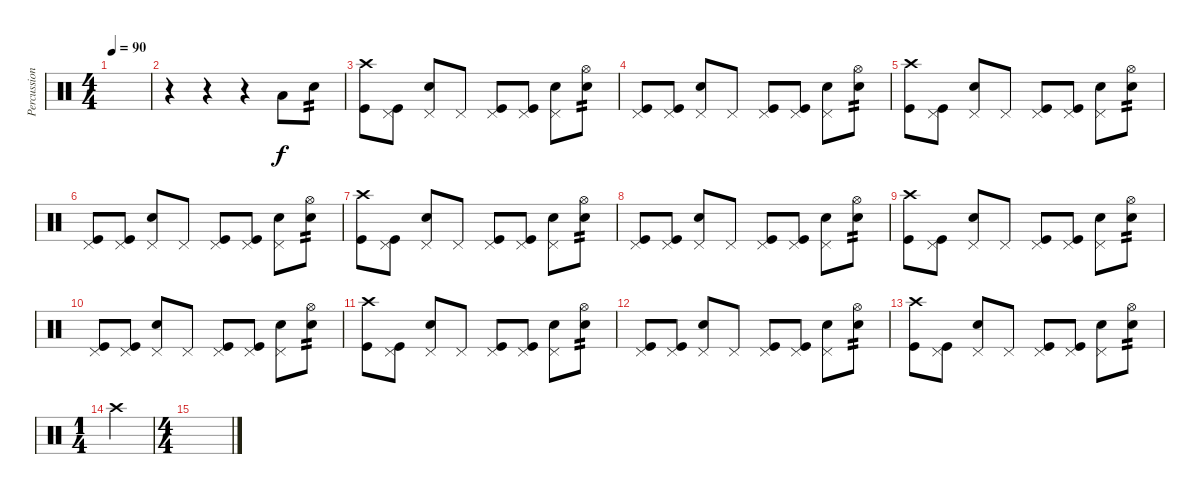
\track ("Percussions" "Percussion") {instrument percussion}
\staff {score}
\articulation defaults
\ts (4 4)
\tempo 90
\clef neutral
\ks c
|
r.4 r.4 r.4 "Low Tom (hit)".8 "Snare (hit) 2".8{tp 2} |
("Crash high (hit)" "Kick (hit)").8 ("Pedal Hi-Hat (hit)" "Kick (hit)").8 ("Pedal Hi-Hat (hit)" "Snare (hit) 2").8 "Pedal Hi-Hat (hit)".8 ("Pedal Hi-Hat (hit)" "Kick (hit)").8 ("Pedal Hi-Hat (hit)" "Kick (hit)").8 ("Pedal Hi-Hat (hit)" "Snare (hit) 2").8 ("Hi-Hat (open)" "Snare (hit) 2").8{tp 2} |
("Pedal Hi-Hat (hit)" "Kick (hit)").8 ("Pedal Hi-Hat (hit)" "Kick (hit)").8 ("Pedal Hi-Hat (hit)" "Snare (hit) 2").8 "Pedal Hi-Hat (hit)".8 ("Pedal Hi-Hat (hit)" "Kick (hit)").8 ("Pedal Hi-Hat (hit)" "Kick (hit)").8 ("Pedal Hi-Hat (hit)" "Snare (hit) 2").8 ("Hi-Hat (open)" "Snare (hit) 2").8{tp 2} |
("Crash high (hit)" "Kick (hit)").8 ("Pedal Hi-Hat (hit)" "Kick (hit)").8 ("Pedal Hi-Hat (hit)" "Snare (hit) 2").8 "Pedal Hi-Hat (hit)".8 ("Pedal Hi-Hat (hit)" "Kick (hit)").8 ("Pedal Hi-Hat (hit)" "Kick (hit)").8 ("Pedal Hi-Hat (hit)" "Snare (hit) 2").8 ("Hi-Hat (open)" "Snare (hit) 2").8{tp 2} |
("Pedal Hi-Hat (hit)" "Kick (hit)").8 ("Pedal Hi-Hat (hit)" "Kick (hit)").8 ("Pedal Hi-Hat (hit)" "Snare (hit) 2").8 "Pedal Hi-Hat (hit)".8 ("Pedal Hi-Hat (hit)" "Kick (hit)").8 ("Pedal Hi-Hat (hit)" "Kick (hit)").8 ("Pedal Hi-Hat (hit)" "Snare (hit) 2").8 ("Hi-Hat (open)" "Snare (hit) 2").8{tp 2} |
("Crash high (hit)" "Kick (hit)").8 ("Pedal Hi-Hat (hit)" "Kick (hit)").8 ("Pedal Hi-Hat (hit)" "Snare (hit) 2").8 "Pedal Hi-Hat (hit)".8 ("Pedal Hi-Hat (hit)" "Kick (hit)").8 ("Pedal Hi-Hat (hit)" "Kick (hit)").8 ("Pedal Hi-Hat (hit)" "Snare (hit) 2").8 ("Hi-Hat (open)" "Snare (hit) 2").8{tp 2} |
("Pedal Hi-Hat (hit)" "Kick (hit)").8 ("Pedal Hi-Hat (hit)" "Kick (hit)").8 ("Pedal Hi-Hat (hit)" "Snare (hit) 2").8 "Pedal Hi-Hat (hit)".8 ("Pedal Hi-Hat (hit)" "Kick (hit)").8 ("Pedal Hi-Hat (hit)" "Kick (hit)").8 ("Pedal Hi-Hat (hit)" "Snare (hit) 2").8 ("Hi-Hat (open)" "Snare (hit) 2").8{tp 2} |
("Crash high (hit)" "Kick (hit)").8 ("Pedal Hi-Hat (hit)" "Kick (hit)").8 ("Pedal Hi-Hat (hit)" "Snare (hit) 2").8 "Pedal Hi-Hat (hit)".8 ("Pedal Hi-Hat (hit)" "Kick (hit)").8 ("Pedal Hi-Hat (hit)" "Kick (hit)").8 ("Pedal Hi-Hat (hit)" "Snare (hit) 2").8 ("Hi-Hat (open)" "Snare (hit) 2").8{tp 2} |
("Pedal Hi-Hat (hit)" "Kick (hit)").8 ("Pedal Hi-Hat (hit)" "Kick (hit)").8 ("Pedal Hi-Hat (hit)" "Snare (hit) 2").8 "Pedal Hi-Hat (hit)".8 ("Pedal Hi-Hat (hit)" "Kick (hit)").8 ("Pedal Hi-Hat (hit)" "Kick (hit)").8 ("Pedal Hi-Hat (hit)" "Snare (hit) 2").8 ("Hi-Hat (open)" "Snare (hit) 2").8{tp 2} |
("Crash high (hit)" "Kick (hit)").8 ("Pedal Hi-Hat (hit)" "Kick (hit)").8 ("Pedal Hi-Hat (hit)" "Snare (hit) 2").8 "Pedal Hi-Hat (hit)".8 ("Pedal Hi-Hat (hit)" "Kick (hit)").8 ("Pedal Hi-Hat (hit)" "Kick (hit)").8 ("Pedal Hi-Hat (hit)" "Snare (hit) 2").8 ("Hi-Hat (open)" "Snare (hit) 2").8{tp 2} |
("Pedal Hi-Hat (hit)" "Kick (hit)").8 ("Pedal Hi-Hat (hit)" "Kick (hit)").8 ("Pedal Hi-Hat (hit)" "Snare (hit) 2").8 "Pedal Hi-Hat (hit)".8 ("Pedal Hi-Hat (hit)" "Kick (hit)").8 ("Pedal Hi-Hat (hit)" "Kick (hit)").8 ("Pedal Hi-Hat (hit)" "Snare (hit) 2").8 ("Hi-Hat (open)" "Snare (hit) 2").8{tp 2} |
("Crash high (hit)" "Kick (hit)").8 ("Pedal Hi-Hat (hit)" "Kick (hit)").8 ("Pedal Hi-Hat (hit)" "Snare (hit) 2").8 "Pedal Hi-Hat (hit)".8 ("Pedal Hi-Hat (hit)" "Kick (hit)").8 ("Pedal Hi-Hat (hit)" "Kick (hit)").8 ("Pedal Hi-Hat (hit)" "Snare (hit) 2").8 ("Hi-Hat (open)" "Snare (hit) 2").8{tp 2} |
\ts (1 4)
"Crash high (hit)".4 |
\ts (4 4)
